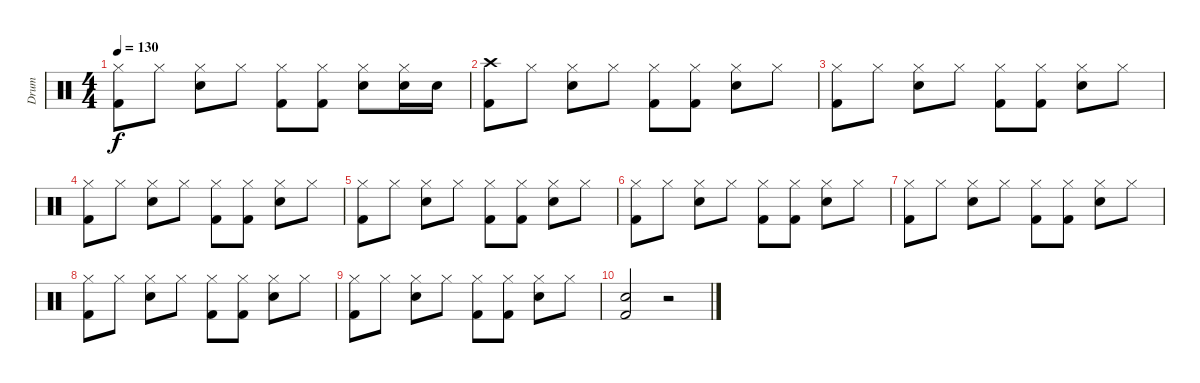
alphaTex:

\track ("Drum" "Drum") {instrument percussion}
\staff {score}
\articulation defaults
\ts (4 4)
\tempo 130
\clef neutral
\ks c
("Hi-Hat (closed)" "Kick (hit) 2").8{dy f} "Hi-Hat (closed)".8 ("Hi-Hat (closed)" "Snare (hit) 2").8 "Hi-Hat (closed)".8 ("Hi-Hat (closed)" "Kick (hit) 2").8 ("Hi-Hat (closed)" "Kick (hit) 2").8 ("Hi-Hat (closed)" "Snare (hit) 2").8 ("Hi-Hat (closed)" "Snare (hit) 2").16 "Snare (hit) 2".16 |
("Crash high (hit)" "Kick (hit) 2").8 "Hi-Hat (closed)".8 ("Hi-Hat (closed)" "Snare (hit) 2").8 "Hi-Hat (closed)".8 ("Hi-Hat (closed)" "Kick (hit) 2").8 ("Hi-Hat (closed)" "Kick (hit) 2").8 ("Hi-Hat (closed)" "Snare (hit) 2").8 "Hi-Hat (closed)".8 |
("Hi-Hat (closed)" "Kick (hit) 2").8 "Hi-Hat (closed)".8 ("Hi-Hat (closed)" "Snare (hit) 2").8 "Hi-Hat (closed)".8 ("Hi-Hat (closed)" "Kick (hit) 2").8 ("Hi-Hat (closed)" "Kick (hit) 2").8 ("Hi-Hat (closed)" "Snare (hit) 2").8 "Hi-Hat (closed)".8 |
("Hi-Hat (closed)" "Kick (hit) 2").8 "Hi-Hat (closed)".8 ("Hi-Hat (closed)" "Snare (hit) 2").8 "Hi-Hat (closed)".8 ("Hi-Hat (closed)" "Kick (hit) 2").8 ("Hi-Hat (closed)" "Kick (hit) 2").8 ("Hi-Hat (closed)" "Snare (hit) 2").8 "Hi-Hat (closed)".8 |
("Hi-Hat (closed)" "Kick (hit) 2").8 "Hi-Hat (closed)".8 ("Hi-Hat (closed)" "Snare (hit) 2").8 "Hi-Hat (closed)".8 ("Hi-Hat (closed)" "Kick (hit) 2").8 ("Hi-Hat (closed)" "Kick (hit) 2").8 ("Hi-Hat (closed)" "Snare (hit) 2").8 "Hi-Hat (closed)".8 |
("Hi-Hat (closed)" "Kick (hit) 2").8 "Hi-Hat (closed)".8 ("Hi-Hat (closed)" "Snare (hit) 2").8 "Hi-Hat (closed)".8 ("Hi-Hat (closed)" "Kick (hit) 2").8 ("Hi-Hat (closed)" "Kick (hit) 2").8 ("Hi-Hat (closed)" "Snare (hit) 2").8 "Hi-Hat (closed)".8 |
("Hi-Hat (closed)" "Kick (hit) 2").8 "Hi-Hat (closed)".8 ("Hi-Hat (closed)" "Snare (hit) 2").8 "Hi-Hat (closed)".8 ("Hi-Hat (closed)" "Kick (hit) 2").8 ("Hi-Hat (closed)" "Kick (hit) 2").8 ("Hi-Hat (closed)" "Snare (hit) 2").8 "Hi-Hat (closed)".8 |
("Hi-Hat (closed)" "Kick (hit) 2").8 "Hi-Hat (closed)".8 ("Hi-Hat (closed)" "Snare (hit) 2").8 "Hi-Hat (closed)".8 ("Hi-Hat (closed)" "Kick (hit) 2").8 ("Hi-Hat (closed)" "Kick (hit) 2").8 ("Hi-Hat (closed)" "Snare (hit) 2").8 "Hi-Hat (closed)".8 |
("Hi-Hat (closed)" "Kick (hit) 2").8 "Hi-Hat (closed)".8 ("Hi-Hat (closed)" "Snare (hit) 2").8 "Hi-Hat (closed)".8 ("Hi-Hat (closed)" "Kick (hit) 2").8 ("Hi-Hat (closed)" "Kick (hit) 2").8 ("Hi-Hat (closed)" "Snare (hit) 2").8 "Hi-Hat (closed)".8 |
("Snare (hit) 2" "Kick (hit) 2").2 r.2
